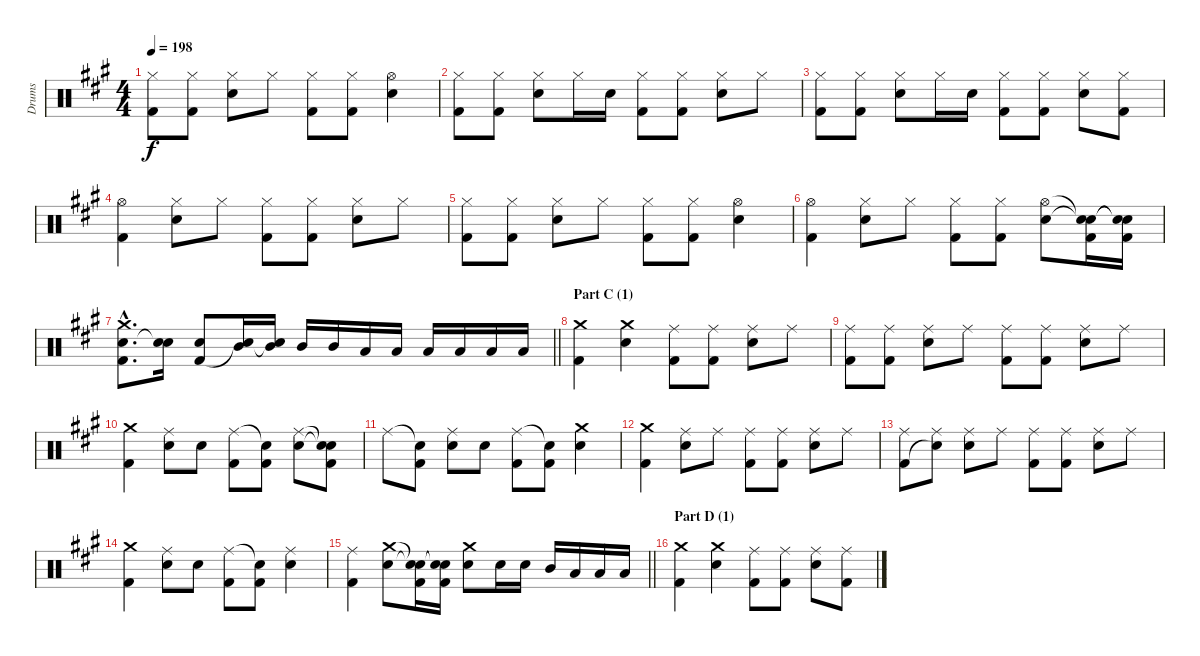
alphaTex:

\track ("Drums" "Drums") {instrument percussion}
\staff {score}
\articulation defaults
\ts (4 4)
\tempo 198
\clef neutral
\ks a
("Hi-Hat (closed)" "Kick (hit) 2").8{dy f} ("Hi-Hat (closed)" "Kick (hit) 2").8 ("Hi-Hat (closed)" "Electric Snare (hit)").8 "Hi-Hat (closed)".8 ("Hi-Hat (closed)" "Kick (hit) 2").8 ("Hi-Hat (closed)" "Kick (hit) 2").8 ("Hi-Hat (open)" "Electric Snare (hit)").4 |
("Hi-Hat (closed)" "Kick (hit) 2").8 ("Hi-Hat (closed)" "Kick (hit) 2").8 ("Hi-Hat (closed)" "Electric Snare (hit)").8 "Hi-Hat (closed)".16 "Electric Snare (hit)".16 ("Hi-Hat (closed)" "Kick (hit) 2").8 ("Hi-Hat (closed)" "Kick (hit) 2").8 ("Hi-Hat (closed)" "Electric Snare (hit)").8 "Hi-Hat (closed)".8 |
("Hi-Hat (closed)" "Kick (hit) 2").8 ("Hi-Hat (closed)" "Kick (hit) 2").8 ("Hi-Hat (closed)" "Electric Snare (hit)").8 "Hi-Hat (closed)".16 "Electric Snare (hit)".16 ("Hi-Hat (closed)" "Kick (hit) 2").8 ("Hi-Hat (closed)" "Kick (hit) 2").8 ("Hi-Hat (closed)" "Electric Snare (hit)").8 ("Hi-Hat (closed)" "Kick (hit) 2").8 |
("Hi-Hat (open)" "Kick (hit) 2").4 ("Hi-Hat (closed)" "Electric Snare (hit)").8 "Hi-Hat (closed)".8 ("Hi-Hat (closed)" "Kick (hit) 2").8 ("Hi-Hat (closed)" "Kick (hit) 2").8 ("Hi-Hat (closed)" "Electric Snare (hit)").8 "Hi-Hat (closed)".8 |
("Hi-Hat (closed)" "Kick (hit) 2").8 ("Hi-Hat (closed)" "Kick (hit) 2").8 ("Hi-Hat (closed)" "Electric Snare (hit)").8 "Hi-Hat (closed)".8 ("Hi-Hat (closed)" "Kick (hit) 2").8 ("Hi-Hat (closed)" "Kick (hit) 2").8 ("Hi-Hat (open)" "Electric Snare (hit)").4 |
("Hi-Hat (open)" "Kick (hit) 2").4 ("Hi-Hat (closed)" "Electric Snare (hit)").8 "Hi-Hat (closed)".8 ("Hi-Hat (closed)" "Kick (hit) 2").8 ("Hi-Hat (closed)" "Kick (hit) 2").8 ("Hi-Hat (open)" "Electric Snare (hit)").8 ("Snare (hit)"{t} "Snare (hit)"{t} "Kick (hit) 2").16 ("Snare (hit)"{t} "Snare (hit)"{t} "Kick (hit) 2").16 |
\barLineRight lightlight
("Crash medium (hit)"{hac} "Electric Snare (hit)"{hac} "Kick (hit) 2"{hac}).8{d} ("Electric Snare (hit)" "Snare (hit)"{t}).16 ("Electric Snare (hit)" "Kick (hit) 2").8 ("Mid Tom (hit)" "Snare (hit)"{t}).16 ("Mid Tom (hit)" "Snare (hit)"{t}).16 "Mid Tom (hit)".16 "Mid Tom (hit)".16 "Low Tom (hit)".16 "Low Tom (hit)".16 "Low Tom (hit)".16 "Low Tom (hit)".16 "Low Floor Tom (hit)".16 "Low Floor Tom (hit)".16 |
\section ("" "Part C (1)")
("Crash medium (hit)" "Kick (hit) 2").4 ("Crash medium (hit)" "Electric Snare (hit)").4 ("Ride (middle)" "Kick (hit) 2").8 ("Ride (middle)" "Kick (hit) 2").8 ("Ride (middle)" "Electric Snare (hit)").8 "Ride (middle)".8 |
("Ride (middle)" "Kick (hit) 2").8 ("Ride (middle)" "Kick (hit) 2").8 ("Ride (middle)" "Electric Snare (hit)").8 "Ride (middle)".8 ("Ride (middle)" "Kick (hit) 2").8 ("Ride (middle)" "Kick (hit) 2").8 ("Ride (middle)" "Electric Snare (hit)").8 "Ride (middle)".8 |
("Crash medium (hit)" "Kick (hit) 2").4 ("Ride (middle)" "Electric Snare (hit)").8 "Electric Snare (hit)".8 ("Ride (middle)" "Kick (hit) 2").8 ("Snare (hit)"{t} "Kick (hit) 2").8 ("Ride (middle)" "Electric Snare (hit)").8 ("Snare (hit)"{t} "Snare (hit)"{t} "Kick (hit) 2").8 |
"Ride (middle)".8 ("Snare (hit)"{t} "Kick (hit) 2").8 ("Ride (middle)" "Electric Snare (hit)").8 "Electric Snare (hit)".8 ("Ride (middle)" "Kick (hit) 2").8 ("Snare (hit)"{t} "Kick (hit) 2").8 ("Crash medium (hit)" "Electric Snare (hit)").4 |
("Crash medium (hit)" "Kick (hit) 2").4 ("Ride (middle)" "Electric Snare (hit)").8 "Ride (middle)".8 ("Ride (middle)" "Kick (hit) 2").8 ("Ride (middle)" "Kick (hit) 2").8 ("Ride (middle)" "Electric Snare (hit)").8 "Ride (middle)".8 |
("Ride (middle)" "Kick (hit) 2").8 ("Ride (middle)" "Snare (hit)"{t}).8 ("Ride (middle)" "Electric Snare (hit)").8 "Ride (middle)".8 ("Ride (middle)" "Kick (hit) 2").8 ("Ride (middle)" "Kick (hit) 2").8 ("Ride (middle)" "Electric Snare (hit)").8 "Ride (middle)".8 |
("Crash medium (hit)" "Kick (hit) 2").4 ("Ride (middle)" "Electric Snare (hit)").8 "Electric Snare (hit)".8 ("Ride (middle)" "Kick (hit) 2").8 ("Snare (hit)"{t} "Kick (hit) 2").8 ("Ride (middle)" "Electric Snare (hit)").4 |
\barLineRight lightlight
("Ride (middle)" "Kick (hit) 2").4 ("Crash medium (hit)" "Electric Snare (hit)").8 ("Snare (hit)"{t} "Snare (hit)"{t} "Kick (hit) 2").16 ("Snare (hit)"{t} "Snare (hit)"{t} "Kick (hit) 2").16 ("Crash medium (hit)" "Electric Snare (hit)").8 "Snare (hit) 2".16 "Electric Snare (hit)".16 "Mid Tom (hit)".16 "Low Tom (hit)".16 "Low Tom (hit)".16 "Low Floor Tom (hit)".16 |
\section ("" "Part D (1)")
("Crash medium (hit)" "Kick (hit) 2").4 ("Crash medium (hit)" "Electric Snare (hit)").4 ("Ride (middle)" "Kick (hit) 2").8 ("Ride (middle)" "Kick (hit) 2").8 ("Ride (middle)" "Electric Snare (hit)").8 ("Ride (middle)" "Kick (hit) 2").8
